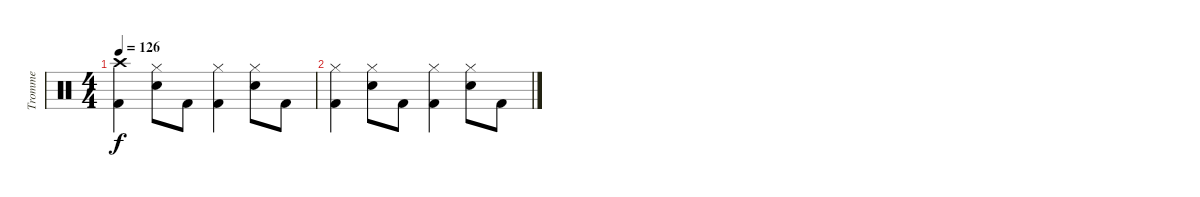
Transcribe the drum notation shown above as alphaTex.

\track ("Tromme" "Tromme") {instrument percussion}
\staff {score}
\articulation defaults
\ts (4 4)
\tempo 126
\clef neutral
\ks c
("Crash high (hit)" "Kick (hit) 2").4{dy f} ("Hi-Hat (closed)" "Snare (hit) 2").8 "Kick (hit) 2".8 ("Hi-Hat (closed)" "Kick (hit) 2").4 ("Hi-Hat (closed)" "Snare (hit) 2").8 "Kick (hit) 2".8 |
("Hi-Hat (closed)" "Kick (hit) 2").4 ("Hi-Hat (closed)" "Snare (hit) 2").8 "Kick (hit) 2".8 ("Hi-Hat (closed)" "Kick (hit) 2").4 ("Hi-Hat (closed)" "Snare (hit) 2").8 "Kick (hit) 2".8
